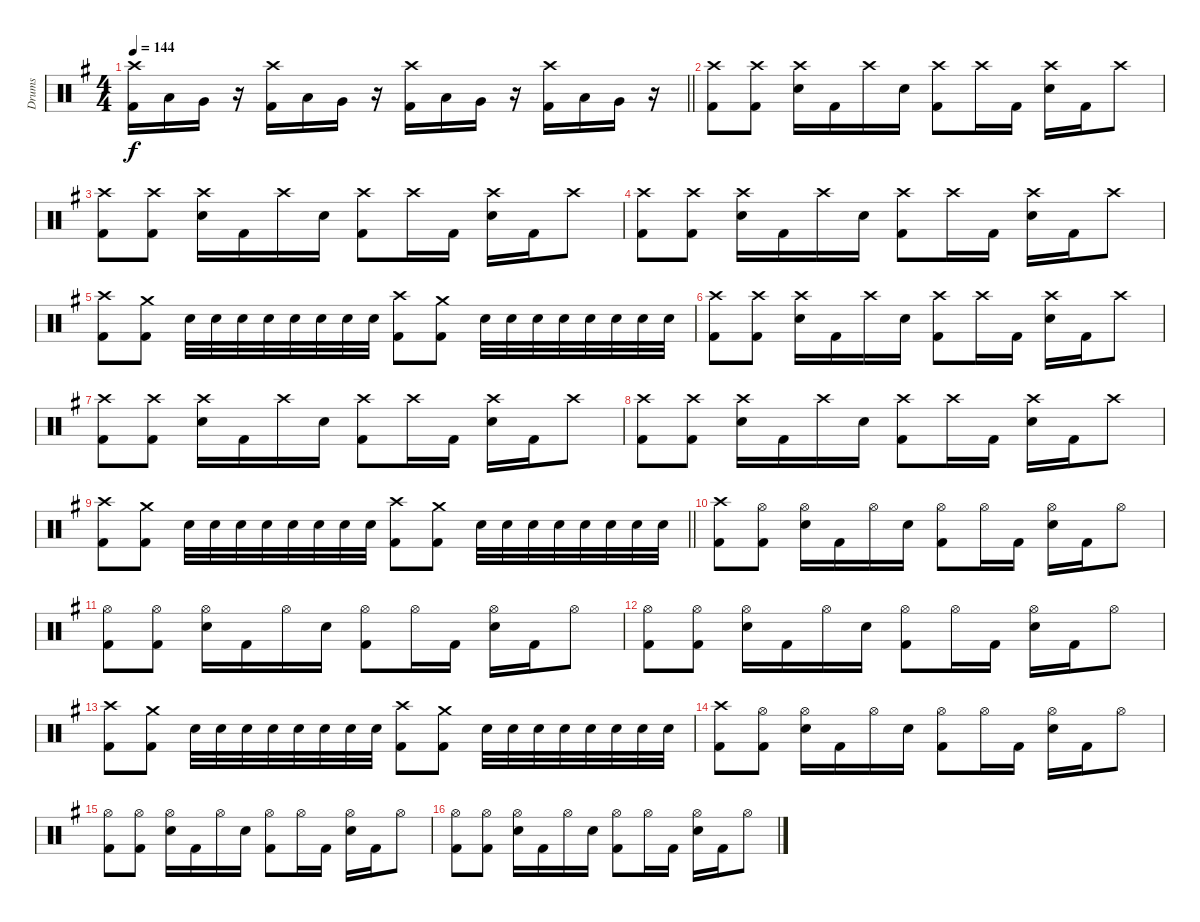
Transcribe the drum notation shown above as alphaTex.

\track ("Drums" "Drums") {instrument percussion}
\staff {score}
\articulation defaults
\ts (4 4)
\tempo 144
\clef neutral
\barLineRight lightlight
\ks eminor
("Crash high (hit)" "Kick (hit) 2").16{dy f} "Low Tom (hit)".16 "Very Low Tom (hit)".16 r.16 ("Crash high (hit)" "Kick (hit) 2").16 "Low Tom (hit)".16 "Very Low Tom (hit)".16 r.16 ("Crash high (hit)" "Kick (hit) 2").16 "Low Tom (hit)".16 "Very Low Tom (hit)".16 r.16 ("Crash high (hit)" "Kick (hit) 2").16 "Low Tom (hit)".16 "Very Low Tom (hit)".16 r.16 |
("Crash high (hit)" "Kick (hit) 2").8 ("Crash high (hit)" "Kick (hit) 2").8 ("Crash high (hit)" "Snare (hit) 2").16 "Kick (hit) 2".16 "Crash high (hit)".16 "Snare (hit) 2".16 ("Crash high (hit)" "Kick (hit) 2").8 "Crash high (hit)".16 "Kick (hit) 2".16 ("Crash high (hit)" "Snare (hit) 2").16 "Kick (hit) 2".16 "Crash high (hit)".8 |
("Crash high (hit)" "Kick (hit) 2").8 ("Crash high (hit)" "Kick (hit) 2").8 ("Crash high (hit)" "Snare (hit) 2").16 "Kick (hit) 2".16 "Crash high (hit)".16 "Snare (hit) 2".16 ("Crash high (hit)" "Kick (hit) 2").8 "Crash high (hit)".16 "Kick (hit) 2".16 ("Crash high (hit)" "Snare (hit) 2").16 "Kick (hit) 2".16 "Crash high (hit)".8 |
("Crash high (hit)" "Kick (hit) 2").8 ("Crash high (hit)" "Kick (hit) 2").8 ("Crash high (hit)" "Snare (hit) 2").16 "Kick (hit) 2".16 "Crash high (hit)".16 "Snare (hit) 2".16 ("Crash high (hit)" "Kick (hit) 2").8 "Crash high (hit)".16 "Kick (hit) 2".16 ("Crash high (hit)" "Snare (hit) 2").16 "Kick (hit) 2".16 "Crash high (hit)".8 |
("Crash high (hit)" "Kick (hit) 2").8 ("Crash medium (hit)" "Kick (hit) 2").8 "Snare (hit) 2".32 "Snare (hit) 2".32 "Snare (hit) 2".32 "Snare (hit) 2".32 "Snare (hit) 2".32 "Snare (hit) 2".32 "Snare (hit) 2".32 "Snare (hit) 2".32 ("Crash high (hit)" "Kick (hit) 2").8 ("Crash medium (hit)" "Kick (hit) 2").8 "Snare (hit) 2".32 "Snare (hit) 2".32 "Snare (hit) 2".32 "Snare (hit) 2".32 "Snare (hit) 2".32 "Snare (hit) 2".32 "Snare (hit) 2".32 "Snare (hit) 2".32 |
("Crash high (hit)" "Kick (hit) 2").8 ("Crash high (hit)" "Kick (hit) 2").8 ("Crash high (hit)" "Snare (hit) 2").16 "Kick (hit) 2".16 "Crash high (hit)".16 "Snare (hit) 2".16 ("Crash high (hit)" "Kick (hit) 2").8 "Crash high (hit)".16 "Kick (hit) 2".16 ("Crash high (hit)" "Snare (hit) 2").16 "Kick (hit) 2".16 "Crash high (hit)".8 |
("Crash high (hit)" "Kick (hit) 2").8 ("Crash high (hit)" "Kick (hit) 2").8 ("Crash high (hit)" "Snare (hit) 2").16 "Kick (hit) 2".16 "Crash high (hit)".16 "Snare (hit) 2".16 ("Crash high (hit)" "Kick (hit) 2").8 "Crash high (hit)".16 "Kick (hit) 2".16 ("Crash high (hit)" "Snare (hit) 2").16 "Kick (hit) 2".16 "Crash high (hit)".8 |
("Crash high (hit)" "Kick (hit) 2").8 ("Crash high (hit)" "Kick (hit) 2").8 ("Crash high (hit)" "Snare (hit) 2").16 "Kick (hit) 2".16 "Crash high (hit)".16 "Snare (hit) 2".16 ("Crash high (hit)" "Kick (hit) 2").8 "Crash high (hit)".16 "Kick (hit) 2".16 ("Crash high (hit)" "Snare (hit) 2").16 "Kick (hit) 2".16 "Crash high (hit)".8 |
\barLineRight lightlight
("Crash high (hit)" "Kick (hit) 2").8 ("Crash medium (hit)" "Kick (hit) 2").8 "Snare (hit) 2".32 "Snare (hit) 2".32 "Snare (hit) 2".32 "Snare (hit) 2".32 "Snare (hit) 2".32 "Snare (hit) 2".32 "Snare (hit) 2".32 "Snare (hit) 2".32 ("Crash high (hit)" "Kick (hit) 2").8 ("Crash medium (hit)" "Kick (hit) 2").8 "Snare (hit) 2".32 "Snare (hit) 2".32 "Snare (hit) 2".32 "Snare (hit) 2".32 "Snare (hit) 2".32 "Snare (hit) 2".32 "Snare (hit) 2".32 "Snare (hit) 2".32 |
("Crash high (hit)" "Kick (hit) 2").8 ("Hi-Hat (open)" "Kick (hit) 2").8 ("Hi-Hat (open)" "Snare (hit) 2").16 "Kick (hit) 2".16 "Hi-Hat (open)".16 "Snare (hit) 2".16 ("Hi-Hat (open)" "Kick (hit) 2").8 "Hi-Hat (open)".16 "Kick (hit) 2".16 ("Hi-Hat (open)" "Snare (hit) 2").16 "Kick (hit) 2".16 "Hi-Hat (open)".8 |
("Hi-Hat (open)" "Kick (hit) 2").8 ("Hi-Hat (open)" "Kick (hit) 2").8 ("Hi-Hat (open)" "Snare (hit) 2").16 "Kick (hit) 2".16 "Hi-Hat (open)".16 "Snare (hit) 2".16 ("Hi-Hat (open)" "Kick (hit) 2").8 "Hi-Hat (open)".16 "Kick (hit) 2".16 ("Hi-Hat (open)" "Snare (hit) 2").16 "Kick (hit) 2".16 "Hi-Hat (open)".8 |
("Hi-Hat (open)" "Kick (hit) 2").8 ("Hi-Hat (open)" "Kick (hit) 2").8 ("Hi-Hat (open)" "Snare (hit) 2").16 "Kick (hit) 2".16 "Hi-Hat (open)".16 "Snare (hit) 2".16 ("Hi-Hat (open)" "Kick (hit) 2").8 "Hi-Hat (open)".16 "Kick (hit) 2".16 ("Hi-Hat (open)" "Snare (hit) 2").16 "Kick (hit) 2".16 "Hi-Hat (open)".8 |
("Crash high (hit)" "Kick (hit) 2").8 ("Crash medium (hit)" "Kick (hit) 2").8 "Snare (hit) 2".32 "Snare (hit) 2".32 "Snare (hit) 2".32 "Snare (hit) 2".32 "Snare (hit) 2".32 "Snare (hit) 2".32 "Snare (hit) 2".32 "Snare (hit) 2".32 ("Crash high (hit)" "Kick (hit) 2").8 ("Crash medium (hit)" "Kick (hit) 2").8 "Snare (hit) 2".32 "Snare (hit) 2".32 "Snare (hit) 2".32 "Snare (hit) 2".32 "Snare (hit) 2".32 "Snare (hit) 2".32 "Snare (hit) 2".32 "Snare (hit) 2".32 |
("Crash high (hit)" "Kick (hit) 2").8 ("Hi-Hat (open)" "Kick (hit) 2").8 ("Hi-Hat (open)" "Snare (hit) 2").16 "Kick (hit) 2".16 "Hi-Hat (open)".16 "Snare (hit) 2".16 ("Hi-Hat (open)" "Kick (hit) 2").8 "Hi-Hat (open)".16 "Kick (hit) 2".16 ("Hi-Hat (open)" "Snare (hit) 2").16 "Kick (hit) 2".16 "Hi-Hat (open)".8 |
("Hi-Hat (open)" "Kick (hit) 2").8 ("Hi-Hat (open)" "Kick (hit) 2").8 ("Hi-Hat (open)" "Snare (hit) 2").16 "Kick (hit) 2".16 "Hi-Hat (open)".16 "Snare (hit) 2".16 ("Hi-Hat (open)" "Kick (hit) 2").8 "Hi-Hat (open)".16 "Kick (hit) 2".16 ("Hi-Hat (open)" "Snare (hit) 2").16 "Kick (hit) 2".16 "Hi-Hat (open)".8 |
("Hi-Hat (open)" "Kick (hit) 2").8 ("Hi-Hat (open)" "Kick (hit) 2").8 ("Hi-Hat (open)" "Snare (hit) 2").16 "Kick (hit) 2".16 "Hi-Hat (open)".16 "Snare (hit) 2".16 ("Hi-Hat (open)" "Kick (hit) 2").8 "Hi-Hat (open)".16 "Kick (hit) 2".16 ("Hi-Hat (open)" "Snare (hit) 2").16 "Kick (hit) 2".16 "Hi-Hat (open)".8
